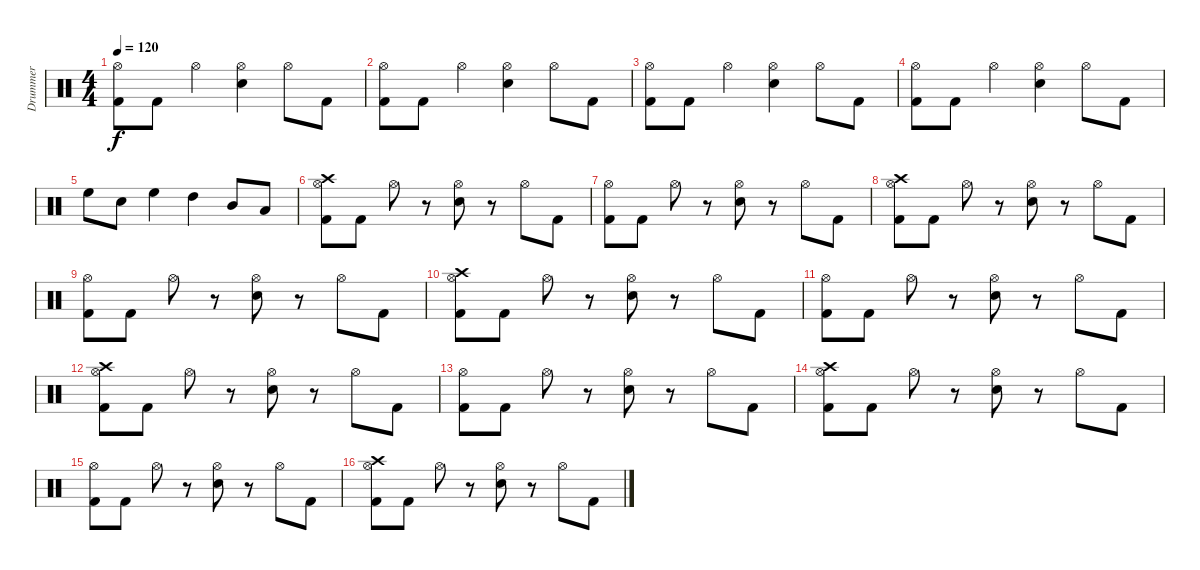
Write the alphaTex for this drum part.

\track ("Drummer" "Drummer") {instrument percussion}
\staff {score}
\articulation defaults
\ts (4 4)
\tempo 120
\clef neutral
\ks c
("Hi-Hat (open)" "Kick (hit) 2").8{dy f} "Kick (hit) 2".8 "Hi-Hat (open)".4 ("Hi-Hat (open)" "Snare (hit) 2").4 "Hi-Hat (open)".8 "Kick (hit) 2".8 |
("Hi-Hat (open)" "Kick (hit) 2").8 "Kick (hit) 2".8 "Hi-Hat (open)".4 ("Hi-Hat (open)" "Snare (hit) 2").4 "Hi-Hat (open)".8 "Kick (hit) 2".8 |
("Hi-Hat (open)" "Kick (hit) 2").8 "Kick (hit) 2".8 "Hi-Hat (open)".4 ("Hi-Hat (open)" "Snare (hit) 2").4 "Hi-Hat (open)".8 "Kick (hit) 2".8 |
("Hi-Hat (open)" "Kick (hit) 2").8 "Kick (hit) 2".8 "Hi-Hat (open)".4 ("Hi-Hat (open)" "Snare (hit) 2").4 "Hi-Hat (open)".8 "Kick (hit) 2".8 |
"High Floor Tom (hit)".8 "Snare (hit) 2".8 "High Floor Tom (hit)".4 "High Tom (hit)".4 "Mid Tom (hit)".8 "Low Tom (hit)".8 |
("Crash high (hit)" "Hi-Hat (open)" "Kick (hit) 2").8 "Kick (hit) 2".8 "Hi-Hat (open)".8 r.8 ("Hi-Hat (open)" "Snare (hit) 2").8 r.8 "Hi-Hat (open)".8 "Kick (hit) 2".8 |
("Hi-Hat (open)" "Kick (hit) 2").8 "Kick (hit) 2".8 "Hi-Hat (open)".8 r.8 ("Hi-Hat (open)" "Snare (hit) 2").8 r.8 "Hi-Hat (open)".8 "Kick (hit) 2".8 |
("Crash high (hit)" "Hi-Hat (open)" "Kick (hit) 2").8 "Kick (hit) 2".8 "Hi-Hat (open)".8 r.8 ("Hi-Hat (open)" "Snare (hit) 2").8 r.8 "Hi-Hat (open)".8 "Kick (hit) 2".8 |
("Hi-Hat (open)" "Kick (hit) 2").8 "Kick (hit) 2".8 "Hi-Hat (open)".8 r.8 ("Hi-Hat (open)" "Snare (hit) 2").8 r.8 "Hi-Hat (open)".8 "Kick (hit) 2".8 |
("Crash high (hit)" "Hi-Hat (open)" "Kick (hit) 2").8 "Kick (hit) 2".8 "Hi-Hat (open)".8 r.8 ("Hi-Hat (open)" "Snare (hit) 2").8 r.8 "Hi-Hat (open)".8 "Kick (hit) 2".8 |
("Hi-Hat (open)" "Kick (hit) 2").8 "Kick (hit) 2".8 "Hi-Hat (open)".8 r.8 ("Hi-Hat (open)" "Snare (hit) 2").8 r.8 "Hi-Hat (open)".8 "Kick (hit) 2".8 |
("Crash high (hit)" "Hi-Hat (open)" "Kick (hit) 2").8 "Kick (hit) 2".8 "Hi-Hat (open)".8 r.8 ("Hi-Hat (open)" "Snare (hit) 2").8 r.8 "Hi-Hat (open)".8 "Kick (hit) 2".8 |
("Hi-Hat (open)" "Kick (hit) 2").8 "Kick (hit) 2".8 "Hi-Hat (open)".8 r.8 ("Hi-Hat (open)" "Snare (hit) 2").8 r.8 "Hi-Hat (open)".8 "Kick (hit) 2".8 |
("Crash high (hit)" "Hi-Hat (open)" "Kick (hit) 2").8 "Kick (hit) 2".8 "Hi-Hat (open)".8 r.8 ("Hi-Hat (open)" "Snare (hit) 2").8 r.8 "Hi-Hat (open)".8 "Kick (hit) 2".8 |
("Hi-Hat (open)" "Kick (hit) 2").8 "Kick (hit) 2".8 "Hi-Hat (open)".8 r.8 ("Hi-Hat (open)" "Snare (hit) 2").8 r.8 "Hi-Hat (open)".8 "Kick (hit) 2".8 |
("Crash high (hit)" "Hi-Hat (open)" "Kick (hit) 2").8 "Kick (hit) 2".8 "Hi-Hat (open)".8 r.8 ("Hi-Hat (open)" "Snare (hit) 2").8 r.8 "Hi-Hat (open)".8 "Kick (hit) 2".8
